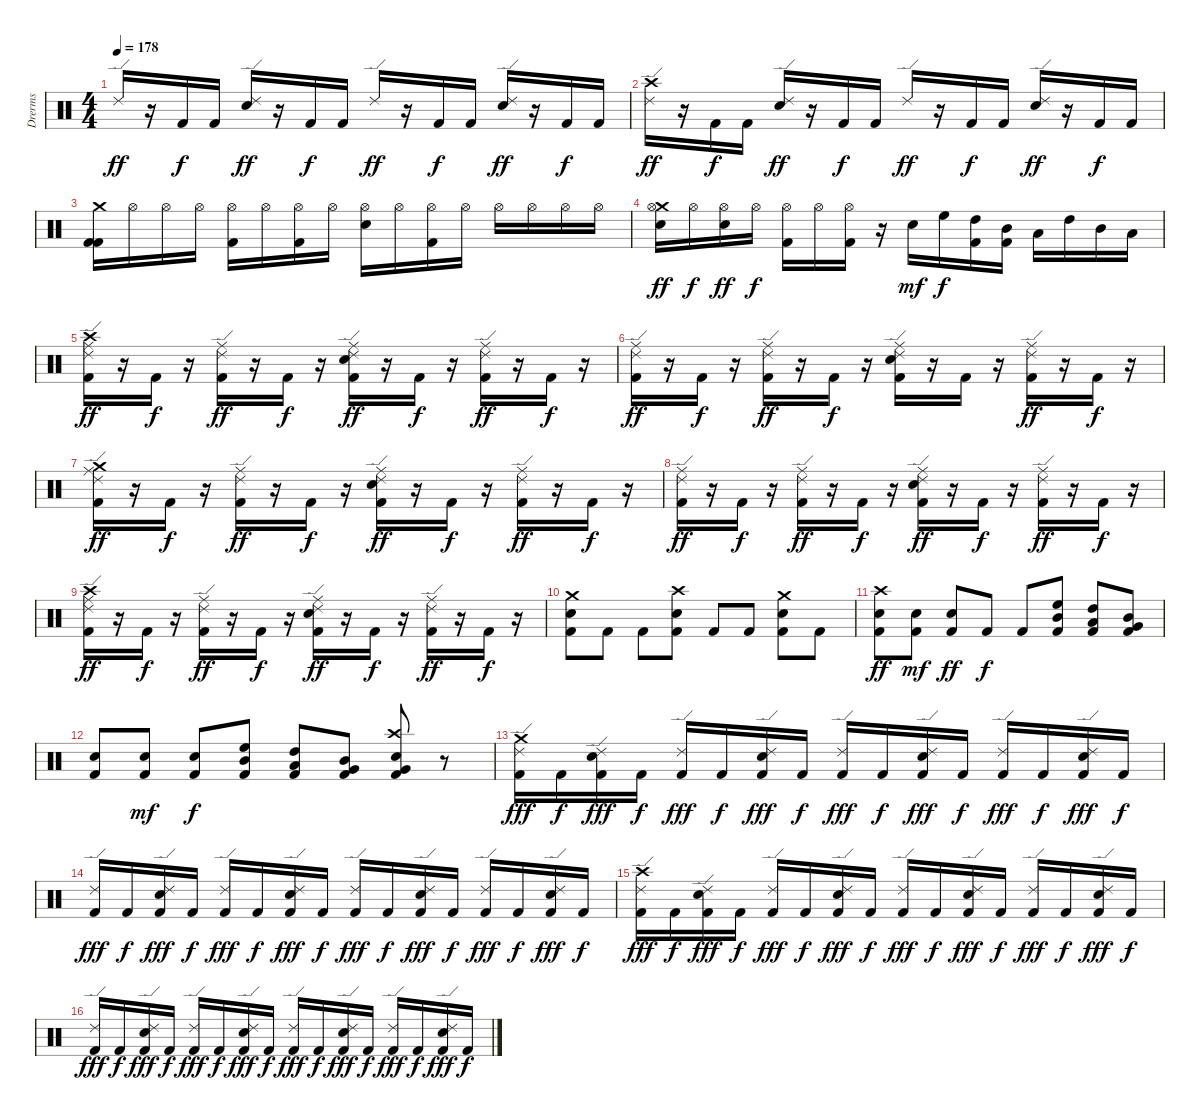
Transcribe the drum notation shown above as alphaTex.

\track ("Drerms" "Drerms") {instrument percussion}
\staff {score}
\articulation defaults
\ts (4 4)
\tempo 178
\clef neutral
\ks c "Ride (edge) 2".16{dy ff}
r.16 "Kick (hit) 2".16{dy f} "Kick (hit) 2".16 ("Snare (hit) 2" "Ride (edge) 2").16{dy ff} r.16 "Kick (hit) 2".16{dy f} "Kick (hit) 2".16 "Ride (edge) 2".16{dy ff} r.16 "Kick (hit) 2".16{dy f} "Kick (hit) 2".16 ("Snare (hit) 2" "Ride (edge) 2").16{dy ff} r.16 "Kick (hit) 2".16{dy f} "Kick (hit) 2".16 |
("Crash high (hit)" "Ride (edge) 2").16{dy ff} r.16 "Kick (hit) 2".16{dy f} "Kick (hit) 2".16 ("Snare (hit) 2" "Ride (edge) 2").16{dy ff} r.16 "Kick (hit) 2".16{dy f} "Kick (hit) 2".16 "Ride (edge) 2".16{dy ff} r.16 "Kick (hit) 2".16{dy f} "Kick (hit) 2".16 ("Snare (hit) 2" "Ride (edge) 2").16{dy ff} r.16 "Kick (hit) 2".16{dy f} "Kick (hit) 2".16 |
("Crash medium (hit)" "Kick (hit) 2" "Kick (hit) 2").16 "Hi-Hat (open)".16 "Hi-Hat (open)".16 "Hi-Hat (open)".16 ("Hi-Hat (open)" "Kick (hit) 2").16 "Hi-Hat (open)".16 ("Hi-Hat (open)" "Kick (hit) 2").16 "Hi-Hat (open)".16 ("Snare (hit) 2" "Hi-Hat (open)").16 "Hi-Hat (open)".16 ("Hi-Hat (open)" "Kick (hit) 2").16 "Hi-Hat (open)".16 "Hi-Hat (open)".16 "Hi-Hat (open)".16 "Hi-Hat (open)".16 "Hi-Hat (open)".16 |
("Crash medium (hit)" "Snare (hit) 2" "Hi-Hat (open)").16{dy ff} "Hi-Hat (open)".16{dy f} ("Snare (hit) 2" "Hi-Hat (open)").16{dy ff} "Hi-Hat (open)".16{dy f} ("Hi-Hat (open)" "Kick (hit) 2").16 "Hi-Hat (open)".16 ("Hi-Hat (open)" "Kick (hit) 2").16 r.16 "Snare (hit) 2".16{dy mf} "High Floor Tom (hit)".16{dy f} ("High Tom (hit)" "Kick (hit) 2").16 ("Mid Tom (hit)" "Kick (hit) 2").16 "Low Tom (hit)".16 "High Tom (hit)".16 "Mid Tom (hit)".16 "Low Tom (hit)".16 |
("Crash high (hit)" "Ride (middle)" "Ride (edge) 2" "Kick (hit) 2").16{dy ff} r.16 "Kick (hit) 2".16{dy f} r.16 ("Ride (middle)" "Ride (edge) 2" "Kick (hit) 2").16{dy ff} r.16 "Kick (hit) 2".16{dy f} r.16 ("Snare (hit) 2" "Ride (middle)" "Ride (edge) 2" "Kick (hit) 2").16{dy ff} r.16 "Kick (hit) 2".16{dy f} r.16 ("Ride (middle)" "Ride (edge) 2" "Kick (hit) 2").16{dy ff} r.16 "Kick (hit) 2".16{dy f} r.16 |
("Ride (middle)" "Ride (edge) 2" "Kick (hit) 2").16{dy ff} r.16 "Kick (hit) 2".16{dy f} r.16 ("Ride (middle)" "Ride (edge) 2" "Kick (hit) 2").16{dy ff} r.16 "Kick (hit) 2".16{dy f} r.16 ("Snare (hit) 2" "Ride (middle)" "Ride (edge) 2" "Kick (hit) 2").16 r.16 "Kick (hit) 2".16 r.16 ("Ride (middle)" "Ride (edge) 2" "Kick (hit) 2").16{dy ff} r.16 "Kick (hit) 2".16{dy f} r.16 |
("Crash medium (hit)" "Ride (middle)" "Ride (edge) 2" "Kick (hit) 2").16{dy ff} r.16 "Kick (hit) 2".16{dy f} r.16 ("Ride (middle)" "Ride (edge) 2" "Kick (hit) 2").16{dy ff} r.16 "Kick (hit) 2".16{dy f} r.16 ("Snare (hit) 2" "Ride (middle)" "Ride (edge) 2" "Kick (hit) 2").16{dy ff} r.16 "Kick (hit) 2".16{dy f} r.16 ("Ride (middle)" "Ride (edge) 2" "Kick (hit) 2").16{dy ff} r.16 "Kick (hit) 2".16{dy f} r.16 |
("Ride (middle)" "Ride (edge) 2" "Kick (hit) 2").16{dy ff} r.16 "Kick (hit) 2".16{dy f} r.16 ("Ride (middle)" "Ride (edge) 2" "Kick (hit) 2").16{dy ff} r.16 "Kick (hit) 2".16{dy f} r.16 ("Snare (hit) 2" "Ride (middle)" "Ride (edge) 2" "Kick (hit) 2").16{dy ff} r.16 "Kick (hit) 2".16{dy f} r.16 ("Ride (middle)" "Ride (edge) 2" "Kick (hit) 2").16{dy ff} r.16 "Kick (hit) 2".16{dy f} r.16 |
("Crash high (hit)" "Ride (middle)" "Ride (edge) 2" "Kick (hit) 2").16{dy ff} r.16 "Kick (hit) 2".16{dy f} r.16 ("Ride (middle)" "Ride (edge) 2" "Kick (hit) 2").16{dy ff} r.16 "Kick (hit) 2".16{dy f} r.16 ("Snare (hit) 2" "Ride (middle)" "Ride (edge) 2" "Kick (hit) 2").16{dy ff} r.16 "Kick (hit) 2".16{dy f} r.16 ("Ride (middle)" "Ride (edge) 2" "Kick (hit) 2").16{dy ff} r.16 "Kick (hit) 2".16{dy f} r.16 |
("Crash medium (hit)" "Snare (hit) 2" "Kick (hit) 2").8 "Kick (hit) 2".8 "Kick (hit) 2".8 ("Crash high (hit)" "Snare (hit) 2" "Kick (hit) 2").8 "Kick (hit) 2".8 "Kick (hit) 2".8 ("Crash medium (hit)" "Snare (hit) 2" "Kick (hit) 2").8 "Kick (hit) 2".8 |
("Crash high (hit)" "Snare (hit) 2" "Kick (hit) 2").8{dy ff} ("Snare (hit) 2" "Kick (hit) 2").8{dy mf} ("Snare (hit) 2" "Kick (hit) 2").8{dy ff} "Kick (hit) 2".8{dy f} "Kick (hit) 2".8 ("High Floor Tom (hit)" "Mid Tom (hit)" "Kick (hit) 2").8 ("High Tom (hit)" "Low Tom (hit)" "Kick (hit) 2").8 ("Mid Tom (hit)" "Very Low Tom (hit)" "Kick (hit) 2").8 |
("Snare (hit) 2" "Kick (hit) 2").8 ("Snare (hit) 2" "Kick (hit) 2").8{dy mf} ("Snare (hit) 2" "Kick (hit) 2").8{dy f} ("High Floor Tom (hit)" "Mid Tom (hit)" "Kick (hit) 2").8 ("High Tom (hit)" "Low Tom (hit)" "Kick (hit) 2").8 ("Mid Tom (hit)" "Very Low Tom (hit)" "Kick (hit) 2").8 ("Crash high (hit)" "Snare (hit) 2" "Very Low Tom (hit)" "Kick (hit) 2").8 r.8 |
("Crash medium (hit)" "Ride (edge) 2" "Kick (hit) 2").16{dy fff} "Kick (hit) 2".16{dy f} ("Snare (hit) 2" "Ride (edge) 2" "Kick (hit) 2").16{dy fff} "Kick (hit) 2".16{dy f} ("Ride (edge) 2" "Kick (hit) 2").16{dy fff} "Kick (hit) 2".16{dy f} ("Snare (hit) 2" "Ride (edge) 2" "Kick (hit) 2").16{dy fff} "Kick (hit) 2".16{dy f} ("Ride (edge) 2" "Kick (hit) 2").16{dy fff} "Kick (hit) 2".16{dy f} ("Snare (hit) 2" "Ride (edge) 2" "Kick (hit) 2").16{dy fff} "Kick (hit) 2".16{dy f} ("Ride (edge) 2" "Kick (hit) 2").16{dy fff} "Kick (hit) 2".16{dy f} ("Snare (hit) 2" "Ride (edge) 2" "Kick (hit) 2").16{dy fff} "Kick (hit) 2".16{dy f} |
("Ride (edge) 2" "Kick (hit) 2").16{dy fff} "Kick (hit) 2".16{dy f} ("Snare (hit) 2" "Ride (edge) 2" "Kick (hit) 2").16{dy fff} "Kick (hit) 2".16{dy f} ("Ride (edge) 2" "Kick (hit) 2").16{dy fff} "Kick (hit) 2".16{dy f} ("Snare (hit) 2" "Ride (edge) 2" "Kick (hit) 2").16{dy fff} "Kick (hit) 2".16{dy f} ("Ride (edge) 2" "Kick (hit) 2").16{dy fff} "Kick (hit) 2".16{dy f} ("Snare (hit) 2" "Ride (edge) 2" "Kick (hit) 2").16{dy fff} "Kick (hit) 2".16{dy f} ("Ride (edge) 2" "Kick (hit) 2").16{dy fff} "Kick (hit) 2".16{dy f} ("Snare (hit) 2" "Ride (edge) 2" "Kick (hit) 2").16{dy fff} "Kick (hit) 2".16{dy f} |
("Crash high (hit)" "Ride (edge) 2" "Kick (hit) 2").16{dy fff} "Kick (hit) 2".16{dy f} ("Snare (hit) 2" "Ride (edge) 2" "Kick (hit) 2").16{dy fff} "Kick (hit) 2".16{dy f} ("Ride (edge) 2" "Kick (hit) 2").16{dy fff} "Kick (hit) 2".16{dy f} ("Snare (hit) 2" "Ride (edge) 2" "Kick (hit) 2").16{dy fff} "Kick (hit) 2".16{dy f} ("Ride (edge) 2" "Kick (hit) 2").16{dy fff} "Kick (hit) 2".16{dy f} ("Snare (hit) 2" "Ride (edge) 2" "Kick (hit) 2").16{dy fff} "Kick (hit) 2".16{dy f} ("Ride (edge) 2" "Kick (hit) 2").16{dy fff} "Kick (hit) 2".16{dy f} ("Snare (hit) 2" "Ride (edge) 2" "Kick (hit) 2").16{dy fff} "Kick (hit) 2".16{dy f} |
("Ride (edge) 2" "Kick (hit) 2").16{dy fff} "Kick (hit) 2".16{dy f} ("Snare (hit) 2" "Ride (edge) 2" "Kick (hit) 2").16{dy fff} "Kick (hit) 2".16{dy f} ("Ride (edge) 2" "Kick (hit) 2").16{dy fff} "Kick (hit) 2".16{dy f} ("Snare (hit) 2" "Ride (edge) 2" "Kick (hit) 2").16{dy fff} "Kick (hit) 2".16{dy f} ("Ride (edge) 2" "Kick (hit) 2").16{dy fff} "Kick (hit) 2".16{dy f} ("Snare (hit) 2" "Ride (edge) 2" "Kick (hit) 2").16{dy fff} "Kick (hit) 2".16{dy f} ("Ride (edge) 2" "Kick (hit) 2").16{dy fff} "Kick (hit) 2".16{dy f} ("Snare (hit) 2" "Ride (edge) 2" "Kick (hit) 2").16{dy fff} "Kick (hit) 2".16{dy f}
